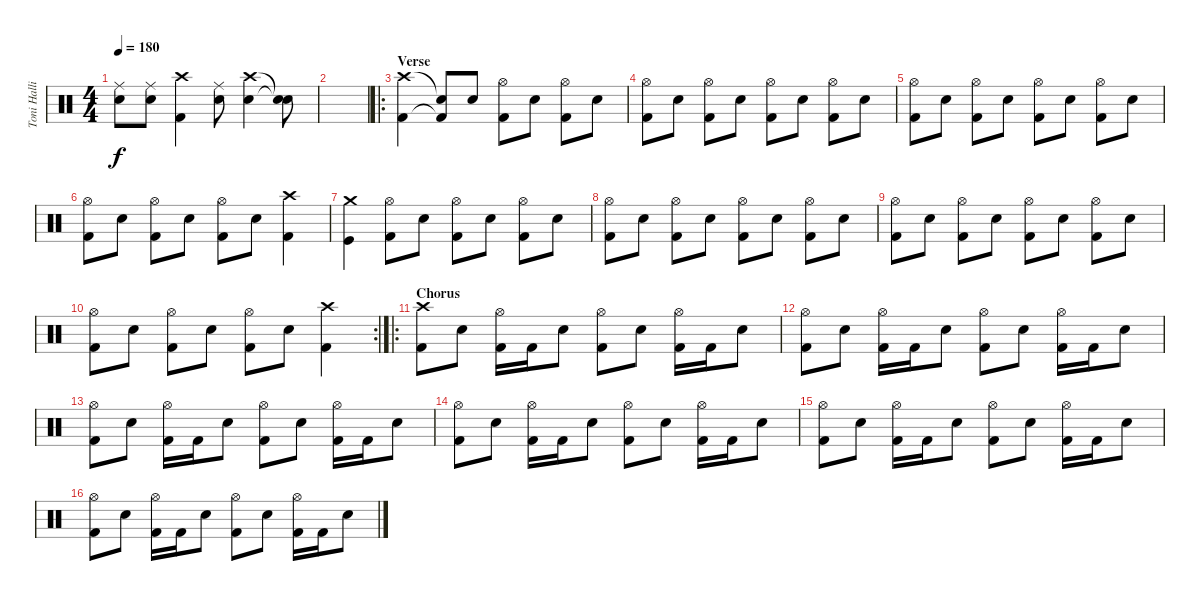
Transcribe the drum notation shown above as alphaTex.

\track ("Toni Hallio" "Toni Halli") {instrument percussion}
\staff {score}
\articulation defaults
\ts (4 4)
\tempo 180
\clef neutral
\ks c
("Ride (middle)" "Electric Snare (hit)").8{dy f} ("Ride (middle)" "Electric Snare (hit)").8 ("Crash high (hit)" "Kick (hit) 2").4 ("Ride (middle)" "Electric Snare (hit)").8 ("Crash high (hit)" "Electric Snare (hit)").4 ("Snare (hit)"{t} "Snare (hit)"{t}).8 |
|
\ro
\section ("" "Verse")
("Crash high (hit)" "Kick (hit) 2").4 ("Snare (hit)"{t} "Kick (hit) 2"{t}).8 "Electric Snare (hit)".8 ("Hi-Hat (open)" "Kick (hit) 2").8 "Electric Snare (hit)".8 ("Hi-Hat (open)" "Kick (hit) 2").8 "Electric Snare (hit)".8 |
("Hi-Hat (open)" "Kick (hit) 2").8 "Electric Snare (hit)".8 ("Hi-Hat (open)" "Kick (hit) 2").8 "Electric Snare (hit)".8 ("Hi-Hat (open)" "Kick (hit) 2").8 "Electric Snare (hit)".8 ("Hi-Hat (open)" "Kick (hit) 2").8 "Electric Snare (hit)".8 |
("Hi-Hat (open)" "Kick (hit) 2").8 "Electric Snare (hit)".8 ("Hi-Hat (open)" "Kick (hit) 2").8 "Electric Snare (hit)".8 ("Hi-Hat (open)" "Kick (hit) 2").8 "Electric Snare (hit)".8 ("Hi-Hat (open)" "Kick (hit) 2").8 "Electric Snare (hit)".8 |
("Hi-Hat (open)" "Kick (hit) 2").8 "Electric Snare (hit)".8 ("Hi-Hat (open)" "Kick (hit) 2").8 "Electric Snare (hit)".8 ("Hi-Hat (open)" "Kick (hit) 2").8 "Electric Snare (hit)".8 ("Crash high (hit)" "Kick (hit) 2").4 |
("Crash medium (hit)" "Kick (hit)").4 ("Hi-Hat (open)" "Kick (hit) 2").8 "Electric Snare (hit)".8 ("Hi-Hat (open)" "Kick (hit) 2").8 "Electric Snare (hit)".8 ("Hi-Hat (open)" "Kick (hit) 2").8 "Electric Snare (hit)".8 |
("Hi-Hat (open)" "Kick (hit) 2").8 "Electric Snare (hit)".8 ("Hi-Hat (open)" "Kick (hit) 2").8 "Electric Snare (hit)".8 ("Hi-Hat (open)" "Kick (hit) 2").8 "Electric Snare (hit)".8 ("Hi-Hat (open)" "Kick (hit) 2").8 "Electric Snare (hit)".8 |
("Hi-Hat (open)" "Kick (hit) 2").8 "Electric Snare (hit)".8 ("Hi-Hat (open)" "Kick (hit) 2").8 "Electric Snare (hit)".8 ("Hi-Hat (open)" "Kick (hit) 2").8 "Electric Snare (hit)".8 ("Hi-Hat (open)" "Kick (hit) 2").8 "Electric Snare (hit)".8 |
\rc 2
("Hi-Hat (open)" "Kick (hit) 2").8 "Electric Snare (hit)".8 ("Hi-Hat (open)" "Kick (hit) 2").8 "Electric Snare (hit)".8 ("Hi-Hat (open)" "Kick (hit) 2").8 "Electric Snare (hit)".8 ("Crash high (hit)" "Kick (hit) 2").4 |
\ro
\section ("" "Chorus")
("Crash high (hit)" "Kick (hit) 2").8 "Electric Snare (hit)".8 ("Hi-Hat (open)" "Kick (hit) 2").16 "Kick (hit) 2".16 "Electric Snare (hit)".8 ("Hi-Hat (open)" "Kick (hit) 2").8 "Electric Snare (hit)".8 ("Hi-Hat (open)" "Kick (hit) 2").16 "Kick (hit) 2".16 "Electric Snare (hit)".8 |
("Hi-Hat (open)" "Kick (hit) 2").8 "Electric Snare (hit)".8 ("Hi-Hat (open)" "Kick (hit) 2").16 "Kick (hit) 2".16 "Electric Snare (hit)".8 ("Hi-Hat (open)" "Kick (hit) 2").8 "Electric Snare (hit)".8 ("Hi-Hat (open)" "Kick (hit) 2").16 "Kick (hit) 2".16 "Electric Snare (hit)".8 |
("Hi-Hat (open)" "Kick (hit) 2").8 "Electric Snare (hit)".8 ("Hi-Hat (open)" "Kick (hit) 2").16 "Kick (hit) 2".16 "Electric Snare (hit)".8 ("Hi-Hat (open)" "Kick (hit) 2").8 "Electric Snare (hit)".8 ("Hi-Hat (open)" "Kick (hit) 2").16 "Kick (hit) 2".16 "Electric Snare (hit)".8 |
("Hi-Hat (open)" "Kick (hit) 2").8 "Electric Snare (hit)".8 ("Hi-Hat (open)" "Kick (hit) 2").16 "Kick (hit) 2".16 "Electric Snare (hit)".8 ("Hi-Hat (open)" "Kick (hit) 2").8 "Electric Snare (hit)".8 ("Hi-Hat (open)" "Kick (hit) 2").16 "Kick (hit) 2".16 "Electric Snare (hit)".8 |
("Hi-Hat (open)" "Kick (hit) 2").8 "Electric Snare (hit)".8 ("Hi-Hat (open)" "Kick (hit) 2").16 "Kick (hit) 2".16 "Electric Snare (hit)".8 ("Hi-Hat (open)" "Kick (hit) 2").8 "Electric Snare (hit)".8 ("Hi-Hat (open)" "Kick (hit) 2").16 "Kick (hit) 2".16 "Electric Snare (hit)".8 |
("Hi-Hat (open)" "Kick (hit) 2").8 "Electric Snare (hit)".8 ("Hi-Hat (open)" "Kick (hit) 2").16 "Kick (hit) 2".16 "Electric Snare (hit)".8 ("Hi-Hat (open)" "Kick (hit) 2").8 "Electric Snare (hit)".8 ("Hi-Hat (open)" "Kick (hit) 2").16 "Kick (hit) 2".16 "Electric Snare (hit)".8
